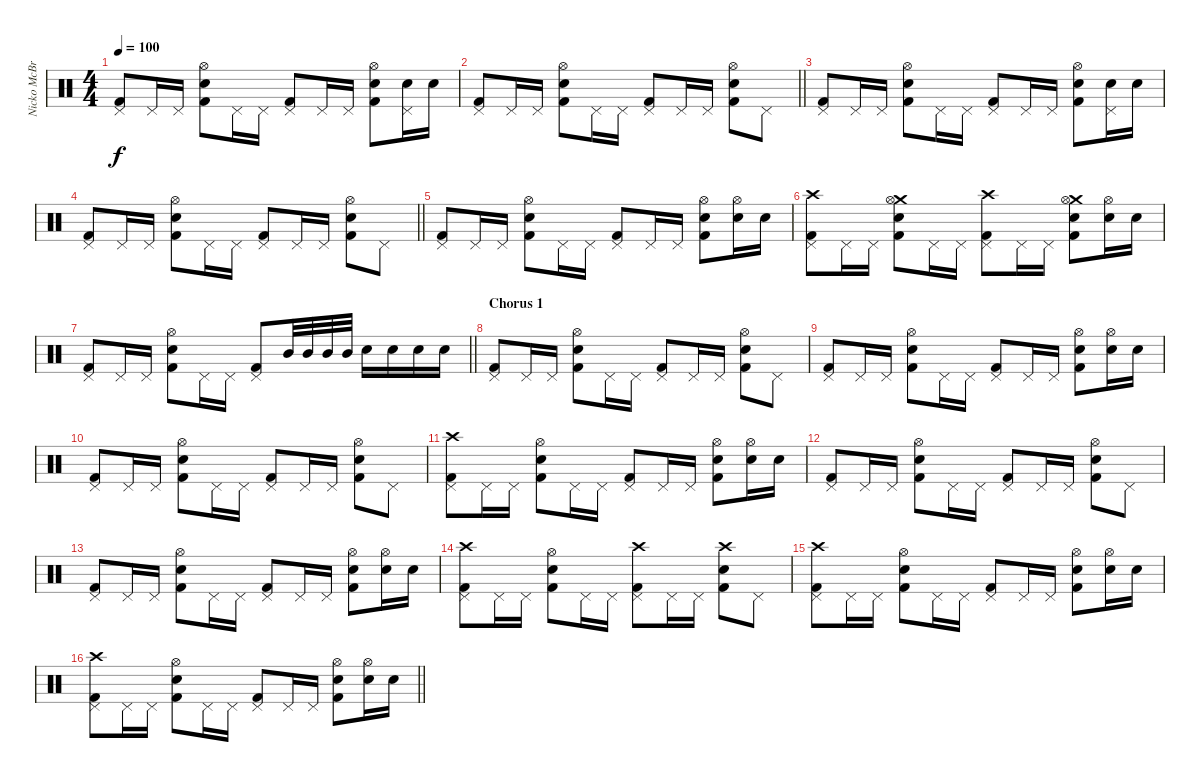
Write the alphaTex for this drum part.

\track ("Nicko McBrain" "Nicko McBr") {instrument percussion}
\staff {score}
\articulation defaults
\ts (4 4)
\tempo 100
\clef neutral
\ks c
("Pedal Hi-Hat (hit)" "Kick (hit) 2").8{dy f} "Pedal Hi-Hat (hit)".16 "Pedal Hi-Hat (hit)".16 ("Electric Snare (hit)" "Hi-Hat (open)" "Kick (hit) 2").8 "Pedal Hi-Hat (hit)".16 "Pedal Hi-Hat (hit)".16 ("Pedal Hi-Hat (hit)" "Kick (hit) 2").8 "Pedal Hi-Hat (hit)".16 "Pedal Hi-Hat (hit)".16 ("Electric Snare (hit)" "Hi-Hat (open)" "Kick (hit) 2").8 ("Pedal Hi-Hat (hit)" "Electric Snare (hit)").16 "Electric Snare (hit)".16 |
\barLineRight lightlight
("Pedal Hi-Hat (hit)" "Kick (hit) 2").8 "Pedal Hi-Hat (hit)".16 "Pedal Hi-Hat (hit)".16 ("Electric Snare (hit)" "Hi-Hat (open)" "Kick (hit) 2").8 "Pedal Hi-Hat (hit)".16 "Pedal Hi-Hat (hit)".16 ("Pedal Hi-Hat (hit)" "Kick (hit) 2").8 "Pedal Hi-Hat (hit)".16 "Pedal Hi-Hat (hit)".16 ("Electric Snare (hit)" "Hi-Hat (open)" "Kick (hit) 2").8 "Pedal Hi-Hat (hit)".8 |
("Pedal Hi-Hat (hit)" "Kick (hit) 2").8 "Pedal Hi-Hat (hit)".16 "Pedal Hi-Hat (hit)".16 ("Electric Snare (hit)" "Hi-Hat (open)" "Kick (hit) 2").8 "Pedal Hi-Hat (hit)".16 "Pedal Hi-Hat (hit)".16 ("Pedal Hi-Hat (hit)" "Kick (hit) 2").8 "Pedal Hi-Hat (hit)".16 "Pedal Hi-Hat (hit)".16 ("Electric Snare (hit)" "Hi-Hat (open)" "Kick (hit) 2").8 ("Pedal Hi-Hat (hit)" "Electric Snare (hit)").16 "Electric Snare (hit)".16 |
\barLineRight lightlight
("Pedal Hi-Hat (hit)" "Kick (hit) 2").8 "Pedal Hi-Hat (hit)".16 "Pedal Hi-Hat (hit)".16 ("Electric Snare (hit)" "Hi-Hat (open)" "Kick (hit) 2").8 "Pedal Hi-Hat (hit)".16 "Pedal Hi-Hat (hit)".16 ("Pedal Hi-Hat (hit)" "Kick (hit) 2").8 "Pedal Hi-Hat (hit)".16 "Pedal Hi-Hat (hit)".16 ("Electric Snare (hit)" "Hi-Hat (open)" "Kick (hit) 2").8 "Pedal Hi-Hat (hit)".8 |
("Pedal Hi-Hat (hit)" "Kick (hit) 2").8 "Pedal Hi-Hat (hit)".16 "Pedal Hi-Hat (hit)".16 ("Electric Snare (hit)" "Hi-Hat (open)" "Kick (hit) 2").8 "Pedal Hi-Hat (hit)".16 "Pedal Hi-Hat (hit)".16 ("Pedal Hi-Hat (hit)" "Kick (hit) 2").8 "Pedal Hi-Hat (hit)".16 "Pedal Hi-Hat (hit)".16 ("Electric Snare (hit)" "Hi-Hat (open)" "Kick (hit) 2").8 ("Hi-Hat (open)" "Electric Snare (hit)").16 "Electric Snare (hit)".16 |
("Crash high (hit)" "Pedal Hi-Hat (hit)" "Kick (hit) 2").8 "Pedal Hi-Hat (hit)".16 "Pedal Hi-Hat (hit)".16 ("Crash medium (hit)" "Electric Snare (hit)" "Hi-Hat (open)" "Kick (hit) 2").8 "Pedal Hi-Hat (hit)".16 "Pedal Hi-Hat (hit)".16 ("Crash high (hit)" "Pedal Hi-Hat (hit)" "Kick (hit) 2").8 "Pedal Hi-Hat (hit)".16 "Pedal Hi-Hat (hit)".16 ("Crash medium (hit)" "Electric Snare (hit)" "Hi-Hat (open)" "Kick (hit) 2").8 ("Hi-Hat (open)" "Electric Snare (hit)").16 "Electric Snare (hit)".16 |
\barLineRight lightlight
("Pedal Hi-Hat (hit)" "Kick (hit) 2").8 "Pedal Hi-Hat (hit)".16 "Pedal Hi-Hat (hit)".16 ("Electric Snare (hit)" "Hi-Hat (open)" "Kick (hit) 2").8 "Pedal Hi-Hat (hit)".16 "Pedal Hi-Hat (hit)".16 ("Pedal Hi-Hat (hit)" "Kick (hit) 2").8 "Mid Tom (hit)".32 "Mid Tom (hit)".32 "Mid Tom (hit)".32 "Mid Tom (hit)".32 "Electric Snare (hit)".16 "Electric Snare (hit)".16 "Electric Snare (hit)".16 "Electric Snare (hit)".16 |
\section ("" "Chorus 1")
("Pedal Hi-Hat (hit)" "Kick (hit) 2").8 "Pedal Hi-Hat (hit)".16 "Pedal Hi-Hat (hit)".16 ("Electric Snare (hit)" "Hi-Hat (open)" "Kick (hit) 2").8 "Pedal Hi-Hat (hit)".16 "Pedal Hi-Hat (hit)".16 ("Pedal Hi-Hat (hit)" "Kick (hit) 2").8 "Pedal Hi-Hat (hit)".16 "Pedal Hi-Hat (hit)".16 ("Electric Snare (hit)" "Hi-Hat (open)" "Kick (hit) 2").8 "Pedal Hi-Hat (hit)".8 |
("Pedal Hi-Hat (hit)" "Kick (hit) 2").8 "Pedal Hi-Hat (hit)".16 "Pedal Hi-Hat (hit)".16 ("Electric Snare (hit)" "Hi-Hat (open)" "Kick (hit) 2").8 "Pedal Hi-Hat (hit)".16 "Pedal Hi-Hat (hit)".16 ("Pedal Hi-Hat (hit)" "Kick (hit) 2").8 "Pedal Hi-Hat (hit)".16 "Pedal Hi-Hat (hit)".16 ("Electric Snare (hit)" "Hi-Hat (open)" "Kick (hit) 2").8 ("Hi-Hat (open)" "Electric Snare (hit)").16 "Electric Snare (hit)".16 |
("Pedal Hi-Hat (hit)" "Kick (hit) 2").8 "Pedal Hi-Hat (hit)".16 "Pedal Hi-Hat (hit)".16 ("Electric Snare (hit)" "Hi-Hat (open)" "Kick (hit) 2").8 "Pedal Hi-Hat (hit)".16 "Pedal Hi-Hat (hit)".16 ("Pedal Hi-Hat (hit)" "Kick (hit) 2").8 "Pedal Hi-Hat (hit)".16 "Pedal Hi-Hat (hit)".16 ("Electric Snare (hit)" "Hi-Hat (open)" "Kick (hit) 2").8 "Pedal Hi-Hat (hit)".8 |
("Crash high (hit)" "Pedal Hi-Hat (hit)" "Kick (hit) 2").8 "Pedal Hi-Hat (hit)".16 "Pedal Hi-Hat (hit)".16 ("Electric Snare (hit)" "Hi-Hat (open)" "Kick (hit) 2").8 "Pedal Hi-Hat (hit)".16 "Pedal Hi-Hat (hit)".16 ("Pedal Hi-Hat (hit)" "Kick (hit) 2").8 "Pedal Hi-Hat (hit)".16 "Pedal Hi-Hat (hit)".16 ("Electric Snare (hit)" "Hi-Hat (open)" "Kick (hit) 2").8 ("Hi-Hat (open)" "Electric Snare (hit)").16 "Electric Snare (hit)".16 |
("Pedal Hi-Hat (hit)" "Kick (hit) 2").8 "Pedal Hi-Hat (hit)".16 "Pedal Hi-Hat (hit)".16 ("Electric Snare (hit)" "Hi-Hat (open)" "Kick (hit) 2").8 "Pedal Hi-Hat (hit)".16 "Pedal Hi-Hat (hit)".16 ("Pedal Hi-Hat (hit)" "Kick (hit) 2").8 "Pedal Hi-Hat (hit)".16 "Pedal Hi-Hat (hit)".16 ("Electric Snare (hit)" "Hi-Hat (open)" "Kick (hit) 2").8 "Pedal Hi-Hat (hit)".8 |
("Pedal Hi-Hat (hit)" "Kick (hit) 2").8 "Pedal Hi-Hat (hit)".16 "Pedal Hi-Hat (hit)".16 ("Electric Snare (hit)" "Hi-Hat (open)" "Kick (hit) 2").8 "Pedal Hi-Hat (hit)".16 "Pedal Hi-Hat (hit)".16 ("Pedal Hi-Hat (hit)" "Kick (hit) 2").8 "Pedal Hi-Hat (hit)".16 "Pedal Hi-Hat (hit)".16 ("Electric Snare (hit)" "Hi-Hat (open)" "Kick (hit) 2").8 ("Hi-Hat (open)" "Electric Snare (hit)").16 "Electric Snare (hit)".16 |
("Pedal Hi-Hat (hit)" "Crash high (hit)" "Kick (hit) 2").8 "Pedal Hi-Hat (hit)".16 "Pedal Hi-Hat (hit)".16 ("Electric Snare (hit)" "Hi-Hat (open)" "Kick (hit) 2").8 "Pedal Hi-Hat (hit)".16 "Pedal Hi-Hat (hit)".16 ("Pedal Hi-Hat (hit)" "Crash high (hit)" "Kick (hit) 2").8 "Pedal Hi-Hat (hit)".16 "Pedal Hi-Hat (hit)".16 ("Electric Snare (hit)" "Crash high (hit)" "Kick (hit) 2").8 "Pedal Hi-Hat (hit)".8 |
("Crash high (hit)" "Pedal Hi-Hat (hit)" "Kick (hit) 2").8 "Pedal Hi-Hat (hit)".16 "Pedal Hi-Hat (hit)".16 ("Electric Snare (hit)" "Hi-Hat (open)" "Kick (hit) 2").8 "Pedal Hi-Hat (hit)".16 "Pedal Hi-Hat (hit)".16 ("Pedal Hi-Hat (hit)" "Kick (hit) 2").8 "Pedal Hi-Hat (hit)".16 "Pedal Hi-Hat (hit)".16 ("Electric Snare (hit)" "Hi-Hat (open)" "Kick (hit) 2").8 ("Hi-Hat (open)" "Electric Snare (hit)").16 "Electric Snare (hit)".16 |
\barLineRight lightlight
("Crash high (hit)" "Pedal Hi-Hat (hit)" "Kick (hit) 2").8 "Pedal Hi-Hat (hit)".16 "Pedal Hi-Hat (hit)".16 ("Electric Snare (hit)" "Hi-Hat (open)" "Kick (hit) 2").8 "Pedal Hi-Hat (hit)".16 "Pedal Hi-Hat (hit)".16 ("Pedal Hi-Hat (hit)" "Kick (hit) 2").8 "Pedal Hi-Hat (hit)".16 "Pedal Hi-Hat (hit)".16 ("Electric Snare (hit)" "Hi-Hat (open)" "Kick (hit) 2").8 ("Hi-Hat (open)" "Electric Snare (hit)").16 "Electric Snare (hit)".16
